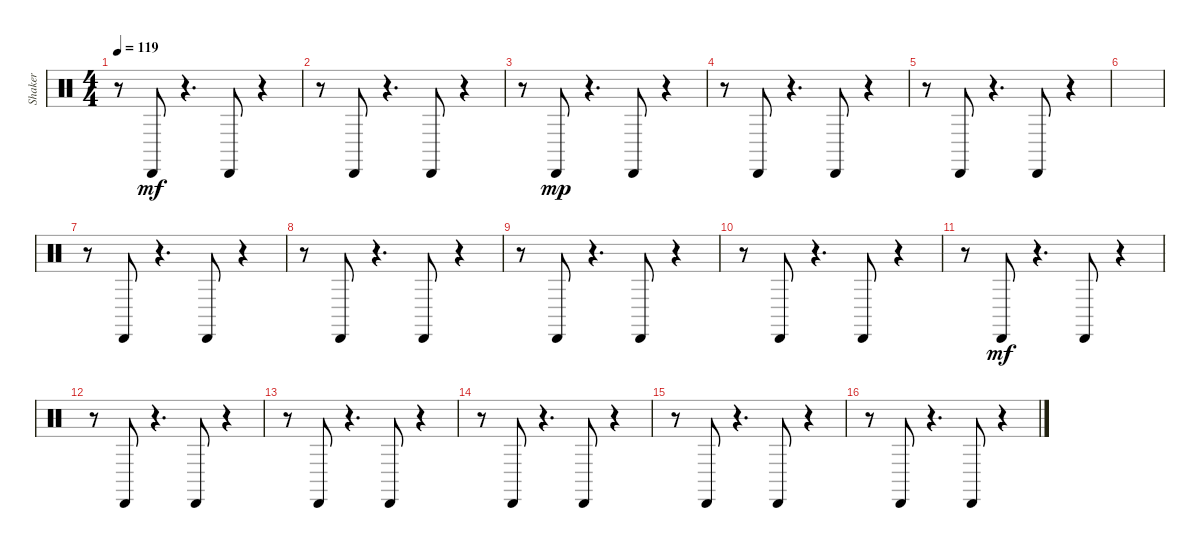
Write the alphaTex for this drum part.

\track ("Shaker" "Shaker") {instrument percussion}
\staff {score}
\articulation defaults
\ts (4 4)
\tempo 119
\clef neutral
\ks c
r.8{dy mf} "Cabasa (hit)".8 r.4{d} "Cabasa (hit)".8 r.4 |
r.8 "Cabasa (hit)".8 r.4{d} "Cabasa (hit)".8 r.4 |
r.8 "Cabasa (hit)".8{dy mp} r.4{d} "Cabasa (hit)".8 r.4 |
r.8 "Cabasa (hit)".8 r.4{d} "Cabasa (hit)".8 r.4 |
r.8 "Cabasa (hit)".8 r.4{d} "Cabasa (hit)".8 r.4 |
|
r.8 "Cabasa (hit)".8 r.4{d} "Cabasa (hit)".8 r.4 |
r.8 "Cabasa (hit)".8 r.4{d} "Cabasa (hit)".8 r.4 |
r.8 "Cabasa (hit)".8 r.4{d} "Cabasa (hit)".8 r.4 |
r.8 "Cabasa (hit)".8 r.4{d} "Cabasa (hit)".8 r.4 |
r.8 "Cabasa (hit)".8{dy mf} r.4{d} "Cabasa (hit)".8 r.4 |
r.8 "Cabasa (hit)".8 r.4{d} "Cabasa (hit)".8 r.4 |
r.8 "Cabasa (hit)".8 r.4{d} "Cabasa (hit)".8 r.4 |
r.8 "Cabasa (hit)".8 r.4{d} "Cabasa (hit)".8 r.4 |
r.8 "Cabasa (hit)".8 r.4{d} "Cabasa (hit)".8 r.4 |
r.8 "Cabasa (hit)".8 r.4{d} "Cabasa (hit)".8 r.4
